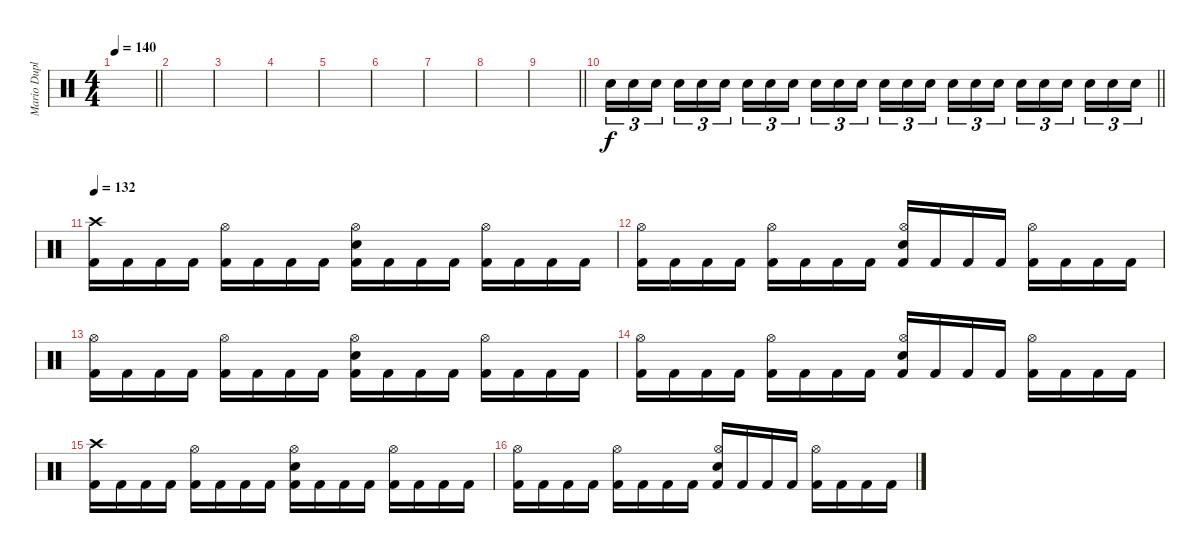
\track ("Mario Duplantier" "Mario Dupl") {instrument percussion}
\staff {score}
\articulation defaults
\ts (4 4)
\tempo 140
\clef neutral
\barLineRight lightlight
\ks c
|
|
|
|
|
|
|
|
\barLineRight lightlight
|
\barLineRight lightlight "Snare (hit) 2".16{tu (3 2)} "Snare (hit) 2".16{tu (3 2)} "Snare (hit) 2".16{tu (3 2) beam splitsecondary} "Snare (hit) 2".16{tu (3 2)} "Snare (hit) 2".16{tu (3 2)} "Snare (hit) 2".16{tu (3 2)} "Snare (hit) 2".16{tu (3 2)} "Snare (hit) 2".16{tu (3 2)} "Snare (hit) 2".16{tu (3 2) beam splitsecondary} "Snare (hit) 2".16{tu (3 2)} "Snare (hit) 2".16{tu (3 2)} "Snare (hit) 2".16{tu (3 2)} "Snare (hit) 2".16{tu (3 2)} "Snare (hit) 2".16{tu (3 2)} "Snare (hit) 2".16{tu (3 2) beam splitsecondary} "Snare (hit) 2".16{tu (3 2)} "Snare (hit) 2".16{tu (3 2)} "Snare (hit) 2".16{tu (3 2)} "Snare (hit) 2".16{tu (3 2)} "Snare (hit) 2".16{tu (3 2)} "Snare (hit) 2".16{tu (3 2) beam splitsecondary} "Snare (hit) 2".16{tu (3 2)} "Snare (hit) 2".16{tu (3 2)} "Snare (hit) 2".16{tu (3 2)}
|
\section ("" "")
\tempo 132
("Crash high (hit)" "Kick (hit) 2").16 "Kick (hit) 2".16 "Kick (hit) 2".16 "Kick (hit) 2".16 ("Hi-Hat (open)" "Kick (hit) 2").16 "Kick (hit) 2".16 "Kick (hit) 2".16 "Kick (hit) 2".16 ("Hi-Hat (open)" "Snare (hit) 2" "Kick (hit) 2").16 "Kick (hit) 2".16 "Kick (hit) 2".16 "Kick (hit) 2".16 ("Hi-Hat (open)" "Kick (hit) 2").16 "Kick (hit) 2".16 "Kick (hit) 2".16 "Kick (hit) 2".16 |
("Hi-Hat (open)" "Kick (hit) 2").16 "Kick (hit) 2".16 "Kick (hit) 2".16 "Kick (hit) 2".16 ("Hi-Hat (open)" "Kick (hit) 2").16 "Kick (hit) 2".16 "Kick (hit) 2".16 "Kick (hit) 2".16 ("Hi-Hat (open)" "Electric Snare (hit)" "Kick (hit) 2").16 "Kick (hit) 2".16 "Kick (hit) 2".16 "Kick (hit) 2".16 ("Hi-Hat (open)" "Kick (hit) 2").16 "Kick (hit) 2".16 "Kick (hit) 2".16 "Kick (hit) 2".16 |
("Hi-Hat (open)" "Kick (hit) 2").16 "Kick (hit) 2".16 "Kick (hit) 2".16 "Kick (hit) 2".16 ("Hi-Hat (open)" "Kick (hit) 2").16 "Kick (hit) 2".16 "Kick (hit) 2".16 "Kick (hit) 2".16 ("Hi-Hat (open)" "Snare (hit) 2" "Kick (hit) 2").16 "Kick (hit) 2".16 "Kick (hit) 2".16 "Kick (hit) 2".16 ("Hi-Hat (open)" "Kick (hit) 2").16 "Kick (hit) 2".16 "Kick (hit) 2".16 "Kick (hit) 2".16 |
("Hi-Hat (open)" "Kick (hit) 2").16 "Kick (hit) 2".16 "Kick (hit) 2".16 "Kick (hit) 2".16 ("Hi-Hat (open)" "Kick (hit) 2").16 "Kick (hit) 2".16 "Kick (hit) 2".16 "Kick (hit) 2".16 ("Hi-Hat (open)" "Electric Snare (hit)" "Kick (hit) 2").16 "Kick (hit) 2".16 "Kick (hit) 2".16 "Kick (hit) 2".16 ("Hi-Hat (open)" "Kick (hit) 2").16 "Kick (hit) 2".16 "Kick (hit) 2".16 "Kick (hit) 2".16 |
("Crash high (hit)" "Kick (hit) 2").16 "Kick (hit) 2".16 "Kick (hit) 2".16 "Kick (hit) 2".16 ("Hi-Hat (open)" "Kick (hit) 2").16 "Kick (hit) 2".16 "Kick (hit) 2".16 "Kick (hit) 2".16 ("Hi-Hat (open)" "Snare (hit) 2" "Kick (hit) 2").16 "Kick (hit) 2".16 "Kick (hit) 2".16 "Kick (hit) 2".16 ("Hi-Hat (open)" "Kick (hit) 2").16 "Kick (hit) 2".16 "Kick (hit) 2".16 "Kick (hit) 2".16 |
("Hi-Hat (open)" "Kick (hit) 2").16 "Kick (hit) 2".16 "Kick (hit) 2".16 "Kick (hit) 2".16 ("Hi-Hat (open)" "Kick (hit) 2").16 "Kick (hit) 2".16 "Kick (hit) 2".16 "Kick (hit) 2".16 ("Hi-Hat (open)" "Electric Snare (hit)" "Kick (hit) 2").16 "Kick (hit) 2".16 "Kick (hit) 2".16 "Kick (hit) 2".16 ("Hi-Hat (open)" "Kick (hit) 2").16 "Kick (hit) 2".16 "Kick (hit) 2".16 "Kick (hit) 2".16
